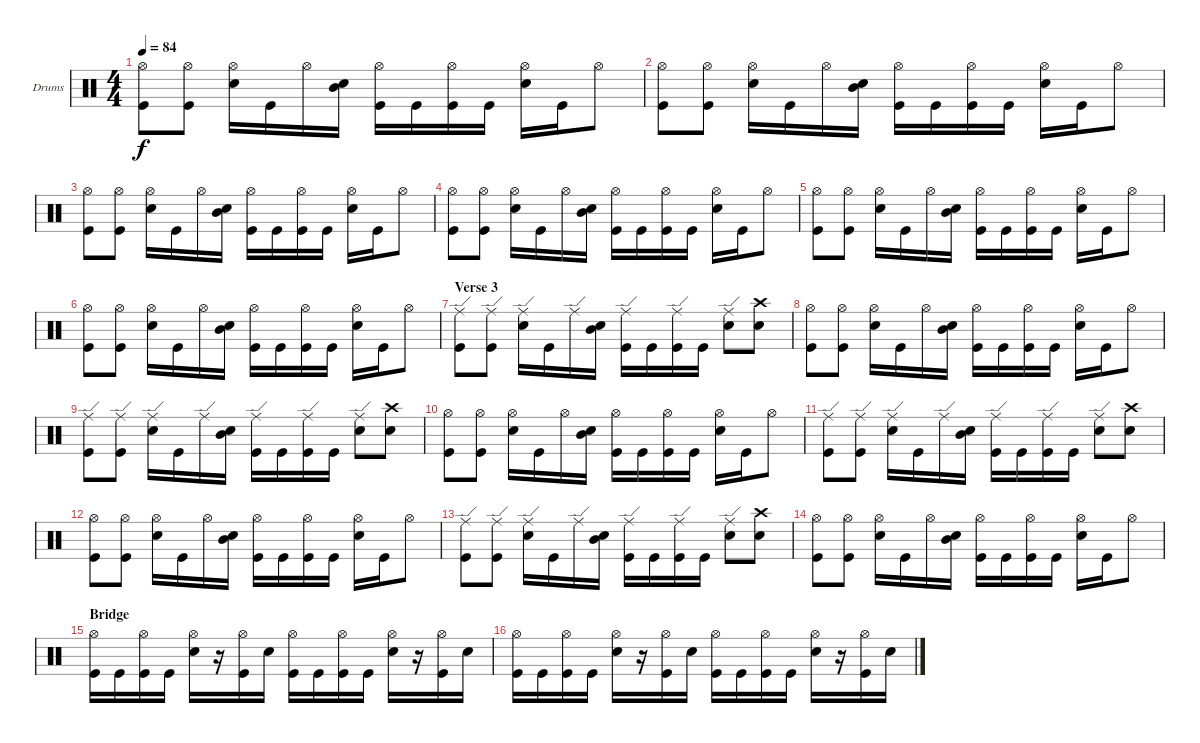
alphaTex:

\bracketExtendMode groupsimilarinstruments
\firstSystemTrackNameOrientation horizontal
\otherSystemsTrackNameOrientation horizontal
\track ("Dave Grohl" "Drums") {instrument percussion}
\staff {score}
\articulation defaults
\ts (4 4)
\tempo 84
\clef neutral
\ks c
("Hi-Hat (open)" "Kick (hit)").8{dy f} ("Hi-Hat (open)" "Kick (hit)").8 ("Hi-Hat (open)" "Snare (hit) 2").16 "Kick (hit)".16 "Hi-Hat (open)".16 ("Snare (hit) 2" "Mid Tom (hit)").16 ("Hi-Hat (open)" "Kick (hit)").16 "Kick (hit)".16 ("Hi-Hat (open)" "Kick (hit)").16 "Kick (hit)".16 ("Hi-Hat (open)" "Snare (hit) 2").16 "Kick (hit)".16 "Hi-Hat (open)".8 |
("Hi-Hat (open)" "Kick (hit)").8 ("Hi-Hat (open)" "Kick (hit)").8 ("Hi-Hat (open)" "Snare (hit) 2").16 "Kick (hit)".16 "Hi-Hat (open)".16 ("Snare (hit) 2" "Mid Tom (hit)").16 ("Hi-Hat (open)" "Kick (hit)").16 "Kick (hit)".16 ("Hi-Hat (open)" "Kick (hit)").16 "Kick (hit)".16 ("Hi-Hat (open)" "Snare (hit) 2").16 "Kick (hit)".16 "Hi-Hat (open)".8 |
("Hi-Hat (open)" "Kick (hit)").8 ("Hi-Hat (open)" "Kick (hit)").8 ("Hi-Hat (open)" "Snare (hit) 2").16 "Kick (hit)".16 "Hi-Hat (open)".16 ("Snare (hit) 2" "Mid Tom (hit)").16 ("Hi-Hat (open)" "Kick (hit)").16 "Kick (hit)".16 ("Hi-Hat (open)" "Kick (hit)").16 "Kick (hit)".16 ("Hi-Hat (open)" "Snare (hit) 2").16 "Kick (hit)".16 "Hi-Hat (open)".8 |
("Hi-Hat (open)" "Kick (hit)").8 ("Hi-Hat (open)" "Kick (hit)").8 ("Hi-Hat (open)" "Snare (hit) 2").16 "Kick (hit)".16 "Hi-Hat (open)".16 ("Snare (hit) 2" "Mid Tom (hit)").16 ("Hi-Hat (open)" "Kick (hit)").16 "Kick (hit)".16 ("Hi-Hat (open)" "Kick (hit)").16 "Kick (hit)".16 ("Hi-Hat (open)" "Snare (hit) 2").16 "Kick (hit)".16 "Hi-Hat (open)".8 |
("Hi-Hat (open)" "Kick (hit)").8 ("Hi-Hat (open)" "Kick (hit)").8 ("Hi-Hat (open)" "Snare (hit) 2").16 "Kick (hit)".16 "Hi-Hat (open)".16 ("Snare (hit) 2" "Mid Tom (hit)").16 ("Hi-Hat (open)" "Kick (hit)").16 "Kick (hit)".16 ("Hi-Hat (open)" "Kick (hit)").16 "Kick (hit)".16 ("Hi-Hat (open)" "Snare (hit) 2").16 "Kick (hit)".16 "Hi-Hat (open)".8 |
("Hi-Hat (open)" "Kick (hit)").8 ("Hi-Hat (open)" "Kick (hit)").8 ("Hi-Hat (open)" "Snare (hit) 2").16 "Kick (hit)".16 "Hi-Hat (open)".16 ("Snare (hit) 2" "Mid Tom (hit)").16 ("Hi-Hat (open)" "Kick (hit)").16 "Kick (hit)".16 ("Hi-Hat (open)" "Kick (hit)").16 "Kick (hit)".16 ("Hi-Hat (open)" "Snare (hit) 2").16 "Kick (hit)".16 "Hi-Hat (open)".8 |
\section ("" "Verse 3")
("Ride (edge)" "Kick (hit)").8 ("Ride (edge)" "Kick (hit)").8 ("Ride (edge)" "Snare (hit) 2").16 "Kick (hit)".16 "Ride (edge)".16 ("Snare (hit) 2" "Mid Tom (hit)").16 ("Ride (edge)" "Kick (hit)").16 "Kick (hit)".16 ("Ride (edge)" "Kick (hit)").16 "Kick (hit)".16 ("Ride (edge)" "Snare (hit) 2").8 ("Crash high (hit)" "Snare (hit) 2").8 |
("Hi-Hat (open)" "Kick (hit)").8 ("Hi-Hat (open)" "Kick (hit)").8 ("Hi-Hat (open)" "Snare (hit) 2").16 "Kick (hit)".16 "Hi-Hat (open)".16 ("Snare (hit) 2" "Mid Tom (hit)").16 ("Hi-Hat (open)" "Kick (hit)").16 "Kick (hit)".16 ("Hi-Hat (open)" "Kick (hit)").16 "Kick (hit)".16 ("Hi-Hat (open)" "Snare (hit) 2").16 "Kick (hit)".16 "Hi-Hat (open)".8 |
("Ride (edge)" "Kick (hit)").8 ("Ride (edge)" "Kick (hit)").8 ("Ride (edge)" "Snare (hit) 2").16 "Kick (hit)".16 "Ride (edge)".16 ("Snare (hit) 2" "Mid Tom (hit)").16 ("Ride (edge)" "Kick (hit)").16 "Kick (hit)".16 ("Ride (edge)" "Kick (hit)").16 "Kick (hit)".16 ("Ride (edge)" "Snare (hit) 2").8 ("Crash high (hit)" "Snare (hit) 2").8 |
("Hi-Hat (open)" "Kick (hit)").8 ("Hi-Hat (open)" "Kick (hit)").8 ("Hi-Hat (open)" "Snare (hit) 2").16 "Kick (hit)".16 "Hi-Hat (open)".16 ("Snare (hit) 2" "Mid Tom (hit)").16 ("Hi-Hat (open)" "Kick (hit)").16 "Kick (hit)".16 ("Hi-Hat (open)" "Kick (hit)").16 "Kick (hit)".16 ("Hi-Hat (open)" "Snare (hit) 2").16 "Kick (hit)".16 "Hi-Hat (open)".8 |
("Ride (edge)" "Kick (hit)").8 ("Ride (edge)" "Kick (hit)").8 ("Ride (edge)" "Snare (hit) 2").16 "Kick (hit)".16 "Ride (edge)".16 ("Snare (hit) 2" "Mid Tom (hit)").16 ("Ride (edge)" "Kick (hit)").16 "Kick (hit)".16 ("Ride (edge)" "Kick (hit)").16 "Kick (hit)".16 ("Ride (edge)" "Snare (hit) 2").8 ("Crash high (hit)" "Snare (hit) 2").8 |
("Hi-Hat (open)" "Kick (hit)").8 ("Hi-Hat (open)" "Kick (hit)").8 ("Hi-Hat (open)" "Snare (hit) 2").16 "Kick (hit)".16 "Hi-Hat (open)".16 ("Snare (hit) 2" "Mid Tom (hit)").16 ("Hi-Hat (open)" "Kick (hit)").16 "Kick (hit)".16 ("Hi-Hat (open)" "Kick (hit)").16 "Kick (hit)".16 ("Hi-Hat (open)" "Snare (hit) 2").16 "Kick (hit)".16 "Hi-Hat (open)".8 |
("Ride (edge)" "Kick (hit)").8 ("Ride (edge)" "Kick (hit)").8 ("Ride (edge)" "Snare (hit) 2").16 "Kick (hit)".16 "Ride (edge)".16 ("Snare (hit) 2" "Mid Tom (hit)").16 ("Ride (edge)" "Kick (hit)").16 "Kick (hit)".16 ("Ride (edge)" "Kick (hit)").16 "Kick (hit)".16 ("Ride (edge)" "Snare (hit) 2").8 ("Crash high (hit)" "Snare (hit) 2").8 |
("Hi-Hat (open)" "Kick (hit)").8 ("Hi-Hat (open)" "Kick (hit)").8 ("Hi-Hat (open)" "Snare (hit) 2").16 "Kick (hit)".16 "Hi-Hat (open)".16 ("Snare (hit) 2" "Mid Tom (hit)").16 ("Hi-Hat (open)" "Kick (hit)").16 "Kick (hit)".16 ("Hi-Hat (open)" "Kick (hit)").16 "Kick (hit)".16 ("Hi-Hat (open)" "Snare (hit) 2").16 "Kick (hit)".16 "Hi-Hat (open)".8 |
\section ("" "Bridge")
("Hi-Hat (open)" "Kick (hit)").16 "Kick (hit)".16 ("Hi-Hat (open)" "Kick (hit)").16 "Kick (hit)".16 ("Hi-Hat (open)" "Snare (hit) 2").16 r.16 ("Hi-Hat (open)" "Kick (hit)").16 "Snare (hit) 2".16 ("Hi-Hat (open)" "Kick (hit)").16 "Kick (hit)".16 ("Hi-Hat (open)" "Kick (hit)").16 "Kick (hit)".16 ("Hi-Hat (open)" "Snare (hit) 2").16 r.16 ("Hi-Hat (open)" "Kick (hit)").16 "Snare (hit) 2".16 |
("Hi-Hat (open)" "Kick (hit)").16 "Kick (hit)".16 ("Hi-Hat (open)" "Kick (hit)").16 "Kick (hit)".16 ("Hi-Hat (open)" "Snare (hit) 2").16 r.16 ("Hi-Hat (open)" "Kick (hit)").16 "Snare (hit) 2".16 ("Hi-Hat (open)" "Kick (hit)").16 "Kick (hit)".16 ("Hi-Hat (open)" "Kick (hit)").16 "Kick (hit)".16 ("Hi-Hat (open)" "Snare (hit) 2").16 r.16 ("Hi-Hat (open)" "Kick (hit)").16 "Snare (hit) 2".16
